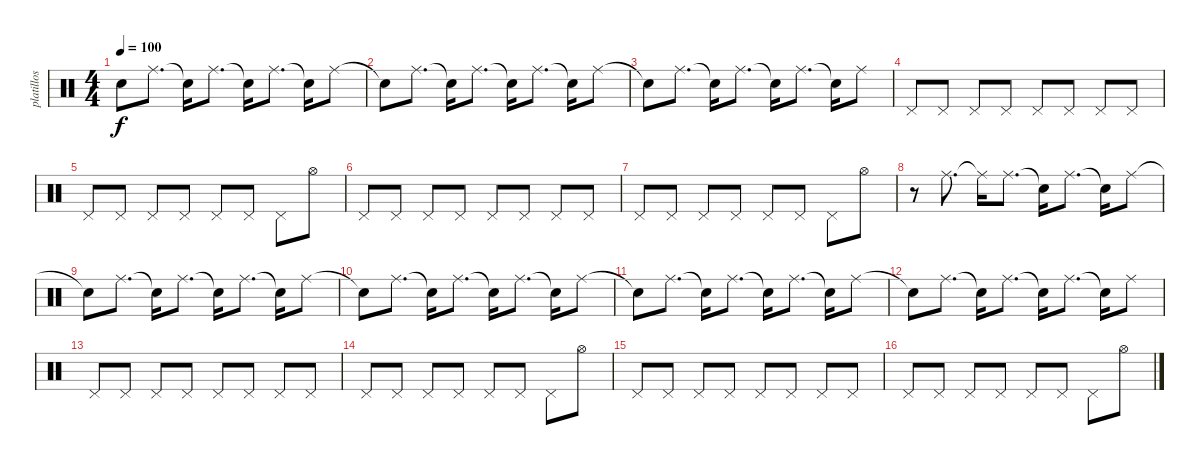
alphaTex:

\track ("platillos" "platillos") {instrument percussion}
\staff {score}
\articulation defaults
\ts (4 4)
\tempo 100
\clef neutral
\ks c "Snare (hit)"{t}.8{dy f} "Ride (middle)".8{d} "Snare (hit)"{t}.16 "Ride (middle)".8{d} "Snare (hit)"{t}.16 "Ride (middle)".8{d} "Snare (hit)"{t}.16 "Ride (middle)".8
|
"Snare (hit)"{t}.8 "Ride (middle)".8{d} "Snare (hit)"{t}.16 "Ride (middle)".8{d} "Snare (hit)"{t}.16 "Ride (middle)".8{d} "Snare (hit)"{t}.16 "Ride (middle)".8 |
"Snare (hit)"{t}.8 "Ride (middle)".8{d} "Snare (hit)"{t}.16 "Ride (middle)".8{d} "Snare (hit)"{t}.16 "Ride (middle)".8{d} "Snare (hit)"{t}.16 "Ride (middle)".8 |
"Pedal Hi-Hat (hit)".8 "Pedal Hi-Hat (hit)".8 "Pedal Hi-Hat (hit)".8 "Pedal Hi-Hat (hit)".8 "Pedal Hi-Hat (hit)".8 "Pedal Hi-Hat (hit)".8 "Pedal Hi-Hat (hit)".8 "Pedal Hi-Hat (hit)".8 |
"Pedal Hi-Hat (hit)".8 "Pedal Hi-Hat (hit)".8 "Pedal Hi-Hat (hit)".8 "Pedal Hi-Hat (hit)".8 "Pedal Hi-Hat (hit)".8 "Pedal Hi-Hat (hit)".8 "Pedal Hi-Hat (hit)".8 "Hi-Hat (open)".8 |
"Pedal Hi-Hat (hit)".8 "Pedal Hi-Hat (hit)".8 "Pedal Hi-Hat (hit)".8 "Pedal Hi-Hat (hit)".8 "Pedal Hi-Hat (hit)".8 "Pedal Hi-Hat (hit)".8 "Pedal Hi-Hat (hit)".8 "Pedal Hi-Hat (hit)".8 |
"Pedal Hi-Hat (hit)".8 "Pedal Hi-Hat (hit)".8 "Pedal Hi-Hat (hit)".8 "Pedal Hi-Hat (hit)".8 "Pedal Hi-Hat (hit)".8 "Pedal Hi-Hat (hit)".8 "Pedal Hi-Hat (hit)".8 "Hi-Hat (open)".8 |
r.8 "Ride (middle)".8{d} "Ride (middle)"{t}.16 "Ride (middle)".8{d} "Snare (hit)"{t}.16 "Ride (middle)".8{d} "Snare (hit)"{t}.16 "Ride (middle)".8 |
"Snare (hit)"{t}.8 "Ride (middle)".8{d} "Snare (hit)"{t}.16 "Ride (middle)".8{d} "Snare (hit)"{t}.16 "Ride (middle)".8{d} "Snare (hit)"{t}.16 "Ride (middle)".8 |
"Snare (hit)"{t}.8 "Ride (middle)".8{d} "Snare (hit)"{t}.16 "Ride (middle)".8{d} "Snare (hit)"{t}.16 "Ride (middle)".8{d} "Snare (hit)"{t}.16 "Ride (middle)".8 |
"Snare (hit)"{t}.8 "Ride (middle)".8{d} "Snare (hit)"{t}.16 "Ride (middle)".8{d} "Snare (hit)"{t}.16 "Ride (middle)".8{d} "Snare (hit)"{t}.16 "Ride (middle)".8 |
"Snare (hit)"{t}.8 "Ride (middle)".8{d} "Snare (hit)"{t}.16 "Ride (middle)".8{d} "Snare (hit)"{t}.16 "Ride (middle)".8{d} "Snare (hit)"{t}.16 "Ride (middle)".8 |
"Pedal Hi-Hat (hit)".8 "Pedal Hi-Hat (hit)".8 "Pedal Hi-Hat (hit)".8 "Pedal Hi-Hat (hit)".8 "Pedal Hi-Hat (hit)".8 "Pedal Hi-Hat (hit)".8 "Pedal Hi-Hat (hit)".8 "Pedal Hi-Hat (hit)".8 |
"Pedal Hi-Hat (hit)".8 "Pedal Hi-Hat (hit)".8 "Pedal Hi-Hat (hit)".8 "Pedal Hi-Hat (hit)".8 "Pedal Hi-Hat (hit)".8 "Pedal Hi-Hat (hit)".8 "Pedal Hi-Hat (hit)".8 "Hi-Hat (open)".8 |
"Pedal Hi-Hat (hit)".8 "Pedal Hi-Hat (hit)".8 "Pedal Hi-Hat (hit)".8 "Pedal Hi-Hat (hit)".8 "Pedal Hi-Hat (hit)".8 "Pedal Hi-Hat (hit)".8 "Pedal Hi-Hat (hit)".8 "Pedal Hi-Hat (hit)".8 |
"Pedal Hi-Hat (hit)".8 "Pedal Hi-Hat (hit)".8 "Pedal Hi-Hat (hit)".8 "Pedal Hi-Hat (hit)".8 "Pedal Hi-Hat (hit)".8 "Pedal Hi-Hat (hit)".8 "Pedal Hi-Hat (hit)".8 "Hi-Hat (open)".8
